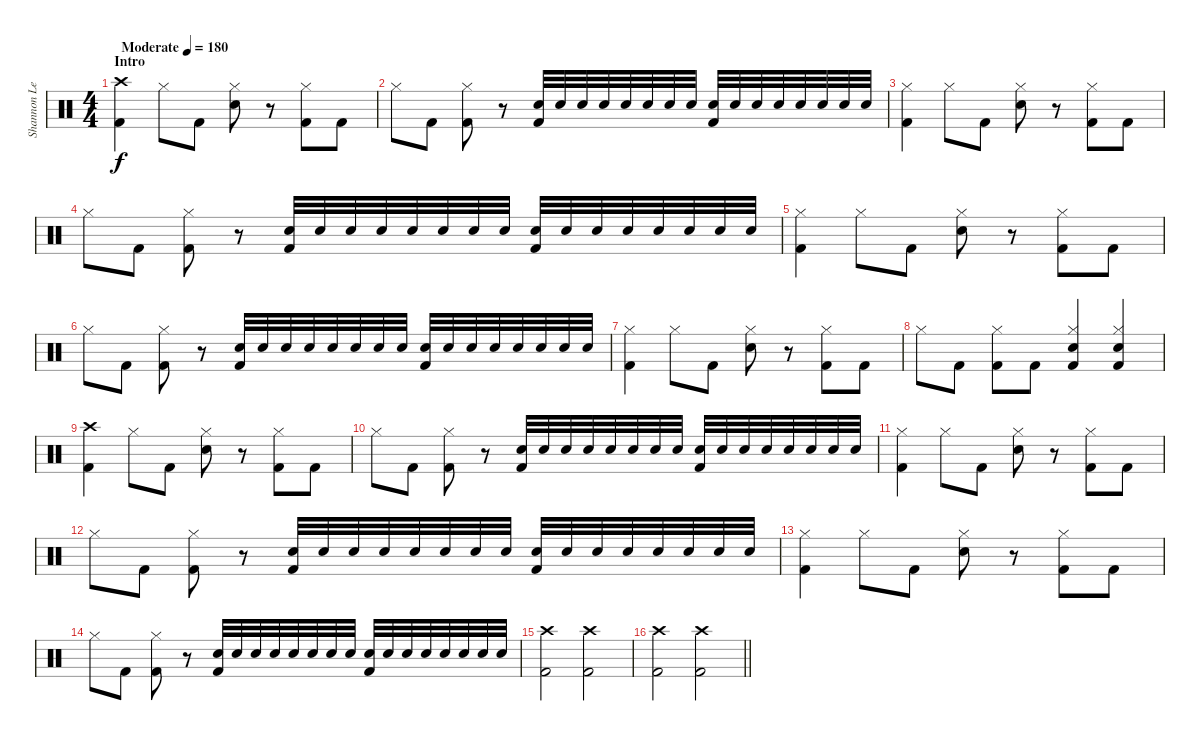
\track ("Shannon Leto" "Shannon Le") {instrument percussion}
\staff {score}
\articulation defaults
\ts (4 4)
\section ("" "Intro")
\tempo (180 "Moderate")
\clef neutral
\ks c
("Crash high (hit)" "Kick (hit) 2").4{dy f} "Hi-Hat (closed)".8 "Kick (hit) 2".8 ("Hi-Hat (closed)" "Snare (hit) 2").8 r.8 ("Hi-Hat (closed)" "Kick (hit) 2").8 "Kick (hit) 2".8 |
"Hi-Hat (closed)".8 "Kick (hit) 2".8 ("Hi-Hat (closed)" "Kick (hit) 2").8 r.8 ("Snare (hit) 2" "Kick (hit) 2").32 "Snare (hit) 2".32 "Snare (hit) 2".32 "Snare (hit) 2".32 "Snare (hit) 2".32 "Snare (hit) 2".32 "Snare (hit) 2".32 "Snare (hit) 2".32 ("Snare (hit) 2" "Kick (hit) 2").32 "Snare (hit) 2".32 "Snare (hit) 2".32 "Snare (hit) 2".32 "Snare (hit) 2".32 "Snare (hit) 2".32 "Snare (hit) 2".32 "Snare (hit) 2".32 |
("Hi-Hat (closed)" "Kick (hit) 2").4 "Hi-Hat (closed)".8 "Kick (hit) 2".8 ("Hi-Hat (closed)" "Snare (hit) 2").8 r.8 ("Hi-Hat (closed)" "Kick (hit) 2").8 "Kick (hit) 2".8 |
"Hi-Hat (closed)".8 "Kick (hit) 2".8 ("Hi-Hat (closed)" "Kick (hit) 2").8 r.8 ("Snare (hit) 2" "Kick (hit) 2").32 "Snare (hit) 2".32 "Snare (hit) 2".32 "Snare (hit) 2".32 "Snare (hit) 2".32 "Snare (hit) 2".32 "Snare (hit) 2".32 "Snare (hit) 2".32 ("Snare (hit) 2" "Kick (hit) 2").32 "Snare (hit) 2".32 "Snare (hit) 2".32 "Snare (hit) 2".32 "Snare (hit) 2".32 "Snare (hit) 2".32 "Snare (hit) 2".32 "Snare (hit) 2".32 |
("Hi-Hat (closed)" "Kick (hit) 2").4 "Hi-Hat (closed)".8 "Kick (hit) 2".8 ("Hi-Hat (closed)" "Snare (hit) 2").8 r.8 ("Hi-Hat (closed)" "Kick (hit) 2").8 "Kick (hit) 2".8 |
"Hi-Hat (closed)".8 "Kick (hit) 2".8 ("Hi-Hat (closed)" "Kick (hit) 2").8 r.8 ("Snare (hit) 2" "Kick (hit) 2").32 "Snare (hit) 2".32 "Snare (hit) 2".32 "Snare (hit) 2".32 "Snare (hit) 2".32 "Snare (hit) 2".32 "Snare (hit) 2".32 "Snare (hit) 2".32 ("Snare (hit) 2" "Kick (hit) 2").32 "Snare (hit) 2".32 "Snare (hit) 2".32 "Snare (hit) 2".32 "Snare (hit) 2".32 "Snare (hit) 2".32 "Snare (hit) 2".32 "Snare (hit) 2".32 |
("Hi-Hat (closed)" "Kick (hit) 2").4 "Hi-Hat (closed)".8 "Kick (hit) 2".8 ("Hi-Hat (closed)" "Snare (hit) 2").8 r.8 ("Hi-Hat (closed)" "Kick (hit) 2").8 "Kick (hit) 2".8 |
"Hi-Hat (closed)".8 "Kick (hit) 2".8 ("Hi-Hat (closed)" "Kick (hit) 2").8 "Kick (hit) 2".8 ("Hi-Hat (closed)" "Snare (hit) 2" "Kick (hit) 2").4 ("Hi-Hat (closed)" "Snare (hit) 2" "Kick (hit) 2").4 |
("Crash high (hit)" "Kick (hit) 2").4 "Hi-Hat (closed)".8 "Kick (hit) 2".8 ("Hi-Hat (closed)" "Snare (hit) 2").8 r.8 ("Hi-Hat (closed)" "Kick (hit) 2").8 "Kick (hit) 2".8 |
"Hi-Hat (closed)".8 "Kick (hit) 2".8 ("Hi-Hat (closed)" "Kick (hit) 2").8 r.8 ("Snare (hit) 2" "Kick (hit) 2").32 "Snare (hit) 2".32 "Snare (hit) 2".32 "Snare (hit) 2".32 "Snare (hit) 2".32 "Snare (hit) 2".32 "Snare (hit) 2".32 "Snare (hit) 2".32 ("Snare (hit) 2" "Kick (hit) 2").32 "Snare (hit) 2".32 "Snare (hit) 2".32 "Snare (hit) 2".32 "Snare (hit) 2".32 "Snare (hit) 2".32 "Snare (hit) 2".32 "Snare (hit) 2".32 |
("Hi-Hat (closed)" "Kick (hit) 2").4 "Hi-Hat (closed)".8 "Kick (hit) 2".8 ("Hi-Hat (closed)" "Snare (hit) 2").8 r.8 ("Hi-Hat (closed)" "Kick (hit) 2").8 "Kick (hit) 2".8 |
"Hi-Hat (closed)".8 "Kick (hit) 2".8 ("Hi-Hat (closed)" "Kick (hit) 2").8 r.8 ("Snare (hit) 2" "Kick (hit) 2").32 "Snare (hit) 2".32 "Snare (hit) 2".32 "Snare (hit) 2".32 "Snare (hit) 2".32 "Snare (hit) 2".32 "Snare (hit) 2".32 "Snare (hit) 2".32 ("Snare (hit) 2" "Kick (hit) 2").32 "Snare (hit) 2".32 "Snare (hit) 2".32 "Snare (hit) 2".32 "Snare (hit) 2".32 "Snare (hit) 2".32 "Snare (hit) 2".32 "Snare (hit) 2".32 |
("Hi-Hat (closed)" "Kick (hit) 2").4 "Hi-Hat (closed)".8 "Kick (hit) 2".8 ("Hi-Hat (closed)" "Snare (hit) 2").8 r.8 ("Hi-Hat (closed)" "Kick (hit) 2").8 "Kick (hit) 2".8 |
"Hi-Hat (closed)".8 "Kick (hit) 2".8 ("Hi-Hat (closed)" "Kick (hit) 2").8 r.8 ("Snare (hit) 2" "Kick (hit) 2").32 "Snare (hit) 2".32 "Snare (hit) 2".32 "Snare (hit) 2".32 "Snare (hit) 2".32 "Snare (hit) 2".32 "Snare (hit) 2".32 "Snare (hit) 2".32 ("Snare (hit) 2" "Kick (hit) 2").32 "Snare (hit) 2".32 "Snare (hit) 2".32 "Snare (hit) 2".32 "Snare (hit) 2".32 "Snare (hit) 2".32 "Snare (hit) 2".32 "Snare (hit) 2".32 |
("Crash high (hit)" "Kick (hit) 2").2 ("Crash high (hit)" "Kick (hit) 2").2 |
\barLineRight lightlight
("Crash high (hit)" "Kick (hit) 2").2 ("Crash high (hit)" "Kick (hit) 2").2
